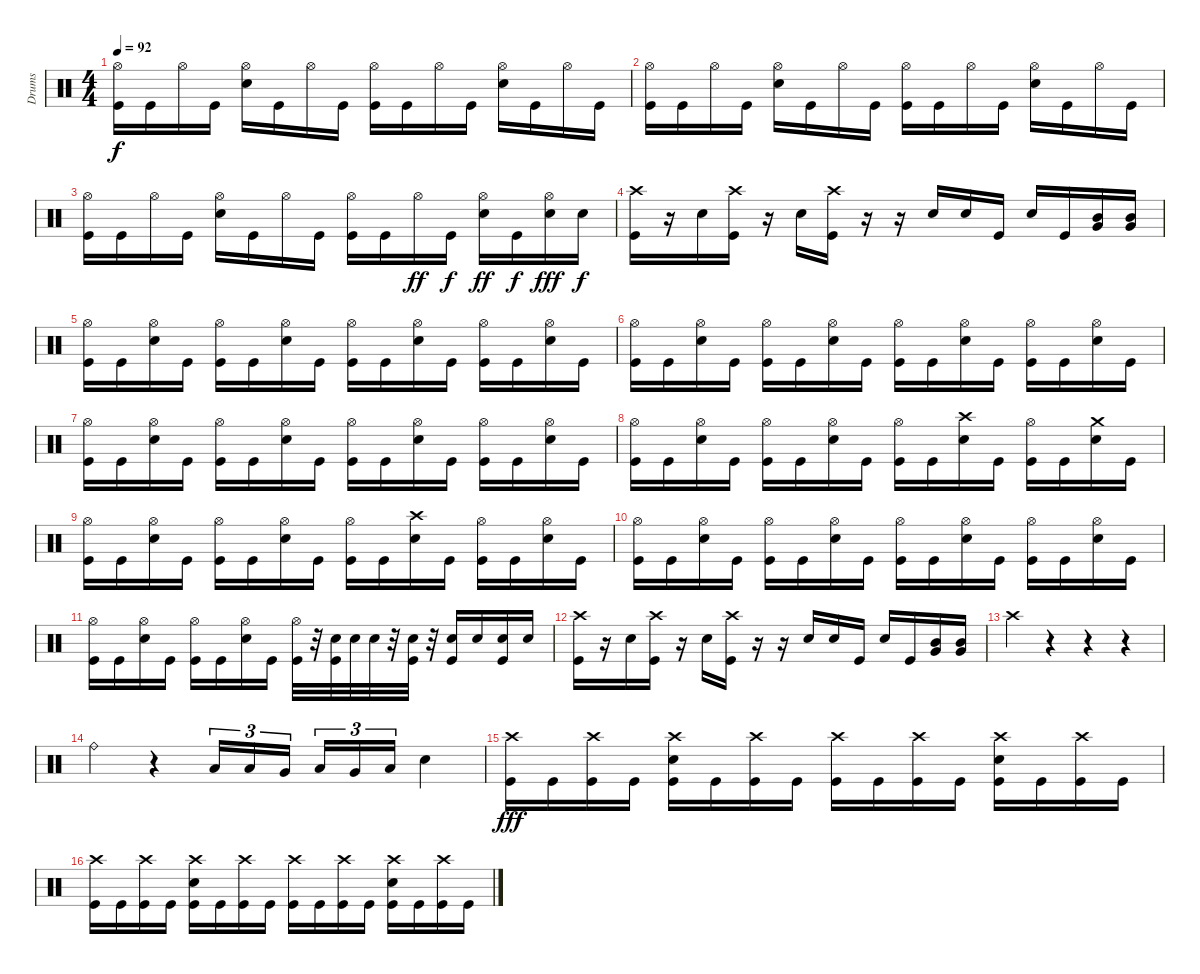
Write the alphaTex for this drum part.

\track ("Drums" "Drums") {instrument percussion}
\staff {score}
\articulation defaults
\ts (4 4)
\tempo 92
\clef neutral
\ks c
("Hi-Hat (open)" "Kick (hit)").16{dy f} "Kick (hit)".16 "Hi-Hat (open)".16 "Kick (hit)".16 ("Hi-Hat (open)" "Snare (hit) 2").16 "Kick (hit)".16 "Hi-Hat (open)".16 "Kick (hit)".16 ("Hi-Hat (open)" "Kick (hit)").16 "Kick (hit)".16 "Hi-Hat (open)".16 "Kick (hit)".16 ("Hi-Hat (open)" "Snare (hit) 2").16 "Kick (hit)".16 "Hi-Hat (open)".16 "Kick (hit)".16 |
("Hi-Hat (open)" "Kick (hit)").16 "Kick (hit)".16 "Hi-Hat (open)".16 "Kick (hit)".16 ("Hi-Hat (open)" "Snare (hit) 2").16 "Kick (hit)".16 "Hi-Hat (open)".16 "Kick (hit)".16 ("Hi-Hat (open)" "Kick (hit)").16 "Kick (hit)".16 "Hi-Hat (open)".16 "Kick (hit)".16 ("Hi-Hat (open)" "Snare (hit) 2").16 "Kick (hit)".16 "Hi-Hat (open)".16 "Kick (hit)".16 |
("Hi-Hat (open)" "Kick (hit)").16 "Kick (hit)".16 "Hi-Hat (open)".16 "Kick (hit)".16 ("Hi-Hat (open)" "Snare (hit) 2").16 "Kick (hit)".16 "Hi-Hat (open)".16 "Kick (hit)".16 ("Hi-Hat (open)" "Kick (hit)").16 "Kick (hit)".16 "Hi-Hat (open)".16{dy ff} "Kick (hit)".16{dy f} ("Hi-Hat (open)" "Snare (hit) 2").16{dy ff} "Kick (hit)".16{dy f} ("Hi-Hat (open)" "Snare (hit) 2").16{dy fff} "Snare (hit) 2".16{dy f} |
("Crash high (hit)" "Kick (hit)").16 r.16 "Snare (hit) 2".16 ("Crash high (hit)" "Kick (hit)").16 r.16 "Snare (hit) 2".16 ("Crash high (hit)" "Kick (hit)").16 r.16 r.16 "Snare (hit) 2".16 "Snare (hit) 2".16 "Kick (hit)".16 "Snare (hit) 2".16 "Kick (hit)".16 ("Mid Tom (hit)" "Very Low Tom (hit)").16 ("Mid Tom (hit)" "Very Low Tom (hit)").16 |
("Hi-Hat (open)" "Kick (hit)").16 "Kick (hit)".16 ("Hi-Hat (open)" "Snare (hit) 2").16 "Kick (hit)".16 ("Hi-Hat (open)" "Kick (hit)").16 "Kick (hit)".16 ("Hi-Hat (open)" "Snare (hit) 2").16 "Kick (hit)".16 ("Hi-Hat (open)" "Kick (hit)").16 "Kick (hit)".16 ("Hi-Hat (open)" "Snare (hit) 2").16 "Kick (hit)".16 ("Hi-Hat (open)" "Kick (hit)").16 "Kick (hit)".16 ("Hi-Hat (open)" "Snare (hit) 2").16 "Kick (hit)".16 |
("Hi-Hat (open)" "Kick (hit)").16 "Kick (hit)".16 ("Hi-Hat (open)" "Snare (hit) 2").16 "Kick (hit)".16 ("Hi-Hat (open)" "Kick (hit)").16 "Kick (hit)".16 ("Hi-Hat (open)" "Snare (hit) 2").16 "Kick (hit)".16 ("Hi-Hat (open)" "Kick (hit)").16 "Kick (hit)".16 ("Hi-Hat (open)" "Snare (hit) 2").16 "Kick (hit)".16 ("Hi-Hat (open)" "Kick (hit)").16 "Kick (hit)".16 ("Hi-Hat (open)" "Snare (hit) 2").16 "Kick (hit)".16 |
("Hi-Hat (open)" "Kick (hit)").16 "Kick (hit)".16 ("Hi-Hat (open)" "Snare (hit) 2").16 "Kick (hit)".16 ("Hi-Hat (open)" "Kick (hit)").16 "Kick (hit)".16 ("Hi-Hat (open)" "Snare (hit) 2").16 "Kick (hit)".16 ("Hi-Hat (open)" "Kick (hit)").16 "Kick (hit)".16 ("Hi-Hat (open)" "Snare (hit) 2").16 "Kick (hit)".16 ("Hi-Hat (open)" "Kick (hit)").16 "Kick (hit)".16 ("Hi-Hat (open)" "Snare (hit) 2").16 "Kick (hit)".16 |
("Hi-Hat (open)" "Kick (hit)").16 "Kick (hit)".16 ("Hi-Hat (open)" "Snare (hit) 2").16 "Kick (hit)".16 ("Hi-Hat (open)" "Kick (hit)").16 "Kick (hit)".16 ("Hi-Hat (open)" "Snare (hit) 2").16 "Kick (hit)".16 ("Hi-Hat (open)" "Kick (hit)").16 "Kick (hit)".16 ("Crash high (hit)" "Snare (hit) 2").16 "Kick (hit)".16 ("Hi-Hat (open)" "Kick (hit)").16 "Kick (hit)".16 ("Crash medium (hit)" "Snare (hit) 2").16 "Kick (hit)".16 |
("Hi-Hat (open)" "Kick (hit)").16 "Kick (hit)".16 ("Hi-Hat (open)" "Snare (hit) 2").16 "Kick (hit)".16 ("Hi-Hat (open)" "Kick (hit)").16 "Kick (hit)".16 ("Hi-Hat (open)" "Snare (hit) 2").16 "Kick (hit)".16 ("Hi-Hat (open)" "Kick (hit)").16 "Kick (hit)".16 ("Crash high (hit)" "Snare (hit) 2").16 "Kick (hit)".16 ("Hi-Hat (open)" "Kick (hit)").16 "Kick (hit)".16 ("Hi-Hat (open)" "Snare (hit) 2").16 "Kick (hit)".16 |
("Hi-Hat (open)" "Kick (hit)").16 "Kick (hit)".16 ("Hi-Hat (open)" "Snare (hit) 2").16 "Kick (hit)".16 ("Hi-Hat (open)" "Kick (hit)").16 "Kick (hit)".16 ("Hi-Hat (open)" "Snare (hit) 2").16 "Kick (hit)".16 ("Hi-Hat (open)" "Kick (hit)").16 "Kick (hit)".16 ("Hi-Hat (open)" "Snare (hit) 2").16 "Kick (hit)".16 ("Hi-Hat (open)" "Kick (hit)").16 "Kick (hit)".16 ("Hi-Hat (open)" "Snare (hit) 2").16 "Kick (hit)".16 |
("Hi-Hat (open)" "Kick (hit)").16 "Kick (hit)".16 ("Hi-Hat (open)" "Snare (hit) 2").16 "Kick (hit)".16 ("Hi-Hat (open)" "Kick (hit)").16 "Kick (hit)".16 ("Hi-Hat (open)" "Snare (hit) 2").16 "Kick (hit)".16 ("Hi-Hat (open)" "Kick (hit)").32 r.32 ("Snare (hit) 2" "Kick (hit)").32 "Snare (hit) 2".32 "Snare (hit) 2".32 r.32 ("Snare (hit) 2" "Kick (hit)").32 r.32 ("Snare (hit) 2" "Kick (hit)").16 "Snare (hit) 2".16 ("Snare (hit) 2" "Kick (hit)").16 "Snare (hit) 2".16 |
("Crash high (hit)" "Kick (hit)").16 r.16 "Snare (hit) 2".16 ("Crash high (hit)" "Kick (hit)").16 r.16 "Snare (hit) 2".16 ("Crash high (hit)" "Kick (hit)").16 r.16 r.16 "Snare (hit) 2".16 "Snare (hit) 2".16 "Kick (hit)".16 "Snare (hit) 2".16 "Kick (hit)".16 ("Mid Tom (hit)" "Very Low Tom (hit)").16 ("Mid Tom (hit)" "Very Low Tom (hit)").16 |
"Crash high (hit)".4 r.4 r.4 r.4 |
"Ride (bell)".4 r.4 "Low Tom (hit)".16{tu (3 2)} "Low Tom (hit)".16{tu (3 2)} "Very Low Tom (hit)".16{tu (3 2)} "Low Tom (hit)".16{tu (3 2)} "Very Low Tom (hit)".16{tu (3 2)} "Low Floor Tom (hit)".16{tu (3 2)} "Snare (hit) 2".4 |
("Crash high (hit)" "Kick (hit)").16{dy fff} "Kick (hit)".16 ("Crash high (hit)" "Kick (hit)").16 "Kick (hit)".16 ("Crash high (hit)" "Snare (hit) 2" "Kick (hit)").16 "Kick (hit)".16 ("Crash high (hit)" "Kick (hit)").16 "Kick (hit)".16 ("Crash high (hit)" "Kick (hit)").16 "Kick (hit)".16 ("Crash high (hit)" "Kick (hit)").16 "Kick (hit)".16 ("Crash high (hit)" "Snare (hit) 2" "Kick (hit)").16 "Kick (hit)".16 ("Crash high (hit)" "Kick (hit)").16 "Kick (hit)".16 |
("Crash high (hit)" "Kick (hit)").16 "Kick (hit)".16 ("Crash high (hit)" "Kick (hit)").16 "Kick (hit)".16 ("Crash high (hit)" "Snare (hit) 2" "Kick (hit)").16 "Kick (hit)".16 ("Crash high (hit)" "Kick (hit)").16 "Kick (hit)".16 ("Crash high (hit)" "Kick (hit)").16 "Kick (hit)".16 ("Crash high (hit)" "Kick (hit)").16 "Kick (hit)".16 ("Crash high (hit)" "Snare (hit) 2" "Kick (hit)").16 "Kick (hit)".16 ("Crash high (hit)" "Kick (hit)").16 "Kick (hit)".16
